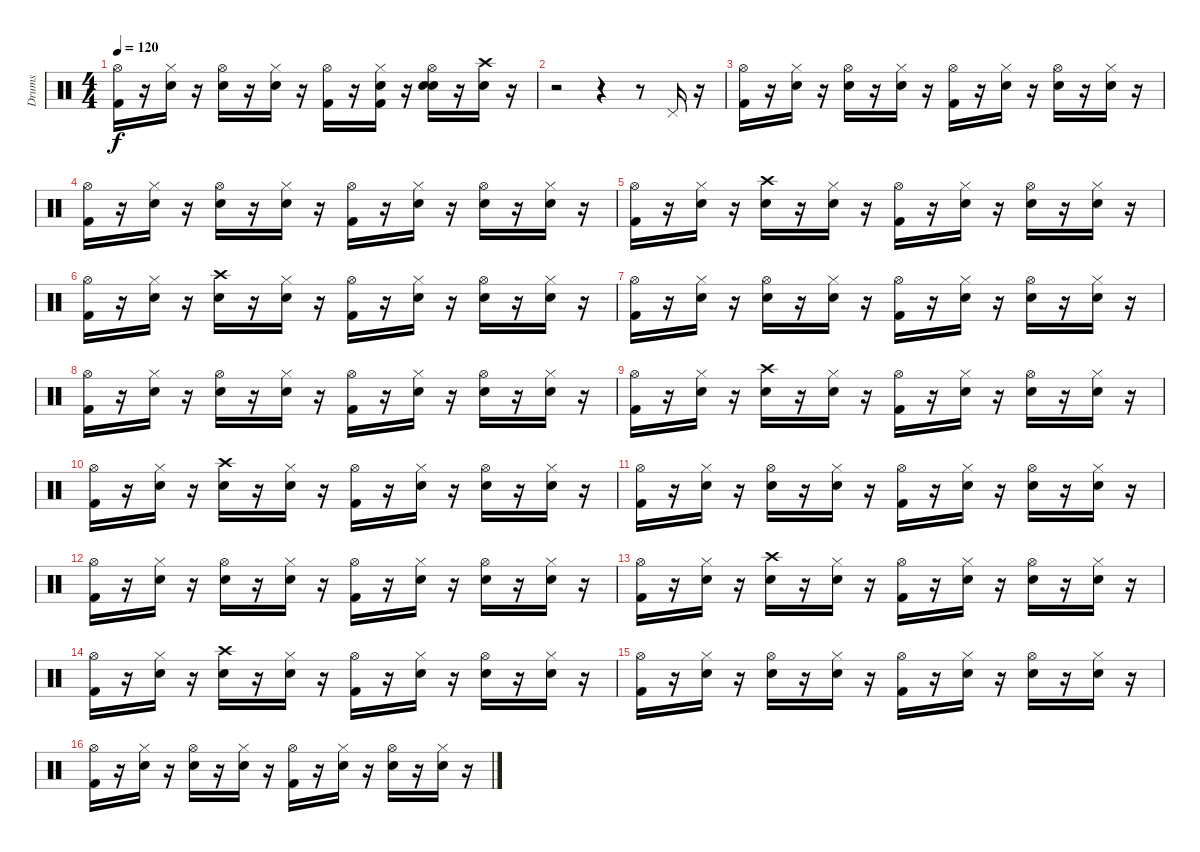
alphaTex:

\track ("Drums" "Drums") {instrument percussion}
\staff {score}
\articulation defaults
\ts (4 4)
\tempo 120
\clef neutral
\ks c
("Kick (hit) 2" "Hi-Hat (open)").16{dy f} r.16 ("Snare (hit)" "Hi-Hat (closed)").16 r.16 ("Electric Snare (hit)" "Hi-Hat (open)").16 r.16 ("Snare (hit)" "Hi-Hat (closed)").16 r.16 ("Kick (hit) 2" "Hi-Hat (open)").16 r.16 ("Snare (hit)" "Kick (hit) 2" "Hi-Hat (closed)").16 r.16 ("Snare (hit)" "Electric Snare (hit)" "Hi-Hat (open)").16 r.16 ("Snare (hit)" "Crash high (hit)").16 r.16 |
r.2 r.4 r.8 "Pedal Hi-Hat (hit)".16 r.16 |
("Kick (hit) 2" "Hi-Hat (open)").16 r.16 ("Snare (hit)" "Hi-Hat (closed)").16 r.16 ("Electric Snare (hit)" "Hi-Hat (open)").16 r.16 ("Snare (hit)" "Hi-Hat (closed)").16 r.16 ("Kick (hit) 2" "Hi-Hat (open)").16 r.16 ("Snare (hit)" "Hi-Hat (closed)").16 r.16 ("Electric Snare (hit)" "Hi-Hat (open)").16 r.16 ("Snare (hit)" "Hi-Hat (closed)").16 r.16 |
("Kick (hit) 2" "Hi-Hat (open)").16 r.16 ("Snare (hit)" "Hi-Hat (closed)").16 r.16 ("Electric Snare (hit)" "Hi-Hat (open)").16 r.16 ("Snare (hit)" "Hi-Hat (closed)").16 r.16 ("Kick (hit) 2" "Hi-Hat (open)").16 r.16 ("Snare (hit)" "Hi-Hat (closed)").16 r.16 ("Electric Snare (hit)" "Hi-Hat (open)").16 r.16 ("Snare (hit)" "Hi-Hat (closed)").16 r.16 |
("Kick (hit) 2" "Hi-Hat (open)").16 r.16 ("Snare (hit)" "Hi-Hat (closed)").16 r.16 ("Electric Snare (hit)" "Crash high (hit)").16 r.16 ("Snare (hit)" "Hi-Hat (closed)").16 r.16 ("Kick (hit) 2" "Hi-Hat (open)").16 r.16 ("Snare (hit)" "Hi-Hat (closed)").16 r.16 ("Electric Snare (hit)" "Hi-Hat (open)").16 r.16 ("Snare (hit)" "Hi-Hat (closed)").16 r.16 |
("Kick (hit) 2" "Hi-Hat (open)").16 r.16 ("Snare (hit)" "Hi-Hat (closed)").16 r.16 ("Electric Snare (hit)" "Crash high (hit)").16 r.16 ("Snare (hit)" "Hi-Hat (closed)").16 r.16 ("Kick (hit) 2" "Hi-Hat (open)").16 r.16 ("Snare (hit)" "Hi-Hat (closed)").16 r.16 ("Electric Snare (hit)" "Hi-Hat (open)").16 r.16 ("Snare (hit)" "Hi-Hat (closed)").16 r.16 |
("Kick (hit) 2" "Hi-Hat (open)").16 r.16 ("Snare (hit)" "Hi-Hat (closed)").16 r.16 ("Electric Snare (hit)" "Hi-Hat (open)").16 r.16 ("Snare (hit)" "Hi-Hat (closed)").16 r.16 ("Kick (hit) 2" "Hi-Hat (open)").16 r.16 ("Snare (hit)" "Hi-Hat (closed)").16 r.16 ("Electric Snare (hit)" "Hi-Hat (open)").16 r.16 ("Snare (hit)" "Hi-Hat (closed)").16 r.16 |
("Kick (hit) 2" "Hi-Hat (open)").16 r.16 ("Snare (hit)" "Hi-Hat (closed)").16 r.16 ("Electric Snare (hit)" "Hi-Hat (open)").16 r.16 ("Snare (hit)" "Hi-Hat (closed)").16 r.16 ("Kick (hit) 2" "Hi-Hat (open)").16 r.16 ("Snare (hit)" "Hi-Hat (closed)").16 r.16 ("Electric Snare (hit)" "Hi-Hat (open)").16 r.16 ("Snare (hit)" "Hi-Hat (closed)").16 r.16 |
("Kick (hit) 2" "Hi-Hat (open)").16 r.16 ("Snare (hit)" "Hi-Hat (closed)").16 r.16 ("Electric Snare (hit)" "Crash high (hit)").16 r.16 ("Snare (hit)" "Hi-Hat (closed)").16 r.16 ("Kick (hit) 2" "Hi-Hat (open)").16 r.16 ("Snare (hit)" "Hi-Hat (closed)").16 r.16 ("Electric Snare (hit)" "Hi-Hat (open)").16 r.16 ("Snare (hit)" "Hi-Hat (closed)").16 r.16 |
("Kick (hit) 2" "Hi-Hat (open)").16 r.16 ("Snare (hit)" "Hi-Hat (closed)").16 r.16 ("Electric Snare (hit)" "Crash high (hit)").16 r.16 ("Snare (hit)" "Hi-Hat (closed)").16 r.16 ("Kick (hit) 2" "Hi-Hat (open)").16 r.16 ("Snare (hit)" "Hi-Hat (closed)").16 r.16 ("Electric Snare (hit)" "Hi-Hat (open)").16 r.16 ("Snare (hit)" "Hi-Hat (closed)").16 r.16 |
("Kick (hit) 2" "Hi-Hat (open)").16 r.16 ("Snare (hit)" "Hi-Hat (closed)").16 r.16 ("Electric Snare (hit)" "Hi-Hat (open)").16 r.16 ("Snare (hit)" "Hi-Hat (closed)").16 r.16 ("Kick (hit) 2" "Hi-Hat (open)").16 r.16 ("Snare (hit)" "Hi-Hat (closed)").16 r.16 ("Electric Snare (hit)" "Hi-Hat (open)").16 r.16 ("Snare (hit)" "Hi-Hat (closed)").16 r.16 |
("Kick (hit) 2" "Hi-Hat (open)").16 r.16 ("Snare (hit)" "Hi-Hat (closed)").16 r.16 ("Electric Snare (hit)" "Hi-Hat (open)").16 r.16 ("Snare (hit)" "Hi-Hat (closed)").16 r.16 ("Kick (hit) 2" "Hi-Hat (open)").16 r.16 ("Snare (hit)" "Hi-Hat (closed)").16 r.16 ("Electric Snare (hit)" "Hi-Hat (open)").16 r.16 ("Snare (hit)" "Hi-Hat (closed)").16 r.16 |
("Kick (hit) 2" "Hi-Hat (open)").16 r.16 ("Snare (hit)" "Hi-Hat (closed)").16 r.16 ("Electric Snare (hit)" "Crash high (hit)").16 r.16 ("Snare (hit)" "Hi-Hat (closed)").16 r.16 ("Kick (hit) 2" "Hi-Hat (open)").16 r.16 ("Snare (hit)" "Hi-Hat (closed)").16 r.16 ("Electric Snare (hit)" "Hi-Hat (open)").16 r.16 ("Snare (hit)" "Hi-Hat (closed)").16 r.16 |
("Kick (hit) 2" "Hi-Hat (open)").16 r.16 ("Snare (hit)" "Hi-Hat (closed)").16 r.16 ("Electric Snare (hit)" "Crash high (hit)").16 r.16 ("Snare (hit)" "Hi-Hat (closed)").16 r.16 ("Kick (hit) 2" "Hi-Hat (open)").16 r.16 ("Snare (hit)" "Hi-Hat (closed)").16 r.16 ("Electric Snare (hit)" "Hi-Hat (open)").16 r.16 ("Snare (hit)" "Hi-Hat (closed)").16 r.16 |
("Kick (hit) 2" "Hi-Hat (open)").16 r.16 ("Snare (hit)" "Hi-Hat (closed)").16 r.16 ("Electric Snare (hit)" "Hi-Hat (open)").16 r.16 ("Snare (hit)" "Hi-Hat (closed)").16 r.16 ("Kick (hit) 2" "Hi-Hat (open)").16 r.16 ("Snare (hit)" "Hi-Hat (closed)").16 r.16 ("Electric Snare (hit)" "Hi-Hat (open)").16 r.16 ("Snare (hit)" "Hi-Hat (closed)").16 r.16 |
("Kick (hit) 2" "Hi-Hat (open)").16 r.16 ("Snare (hit)" "Hi-Hat (closed)").16 r.16 ("Electric Snare (hit)" "Hi-Hat (open)").16 r.16 ("Snare (hit)" "Hi-Hat (closed)").16 r.16 ("Kick (hit) 2" "Hi-Hat (open)").16 r.16 ("Snare (hit)" "Hi-Hat (closed)").16 r.16 ("Electric Snare (hit)" "Hi-Hat (open)").16 r.16 ("Snare (hit)" "Hi-Hat (closed)").16 r.16
